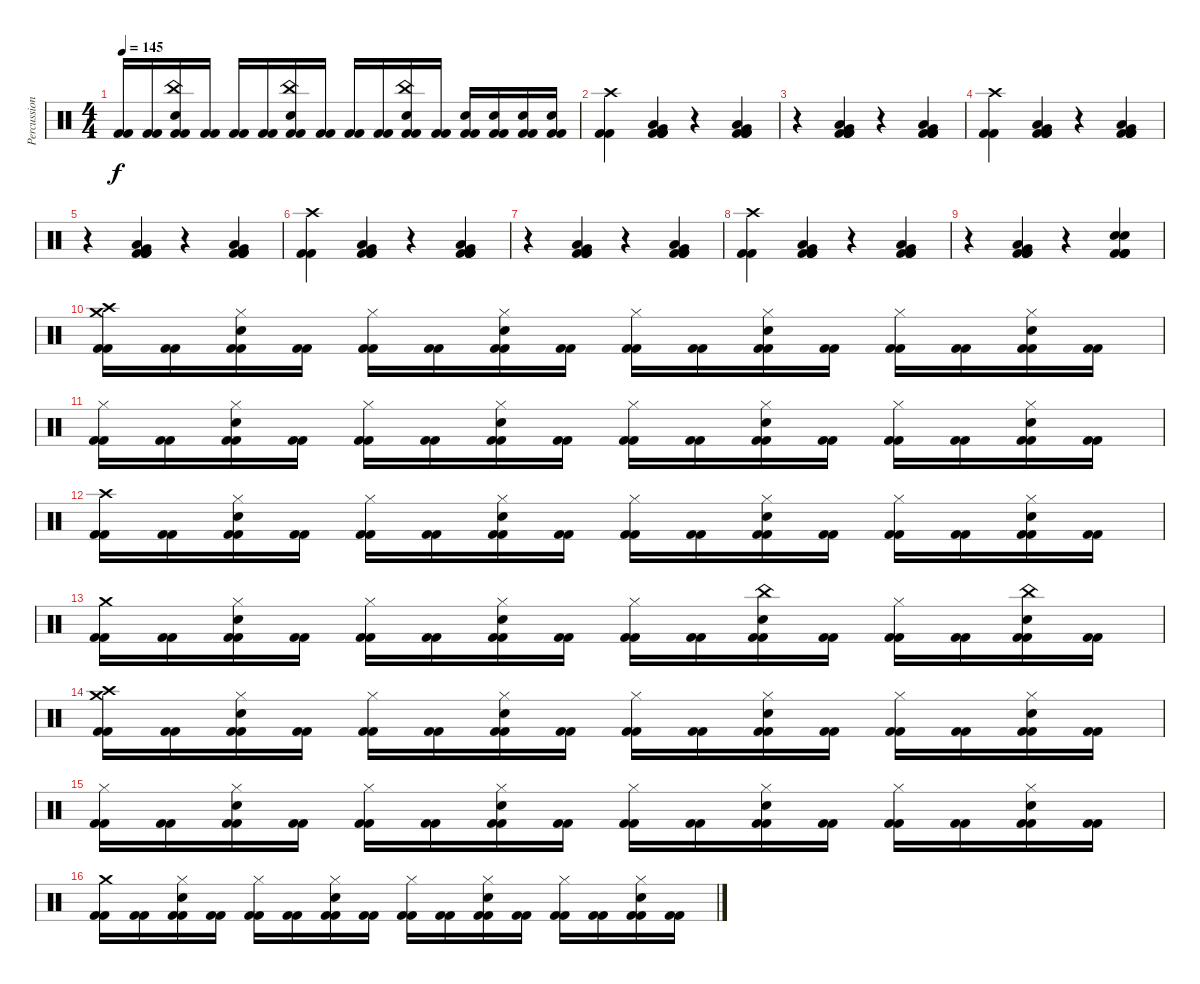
\track ("Percussion" "Percussion") {instrument percussion}
\staff {score}
\articulation defaults
\ts (4 4)
\tempo 145
\clef neutral
\ks c
("Kick (hit) 2" "Kick (hit) 2").16{dy f} ("Kick (hit) 2" "Kick (hit) 2").16 ("China (hit)" "Snare (hit) 2" "Kick (hit) 2" "Kick (hit) 2").16 ("Kick (hit) 2" "Kick (hit) 2").16 ("Kick (hit) 2" "Kick (hit) 2").16 ("Kick (hit) 2" "Kick (hit) 2").16 ("China (hit)" "Snare (hit) 2" "Kick (hit) 2" "Kick (hit) 2").16 ("Kick (hit) 2" "Kick (hit) 2").16 ("Kick (hit) 2" "Kick (hit) 2").16 ("Kick (hit) 2" "Kick (hit) 2").16 ("China (hit)" "Snare (hit) 2" "Kick (hit) 2" "Kick (hit) 2").16 ("Kick (hit) 2" "Kick (hit) 2").16 ("Snare (hit) 2" "Kick (hit) 2" "Kick (hit) 2").16 ("Snare (hit) 2" "Kick (hit) 2" "Kick (hit) 2").16 ("Snare (hit) 2" "Kick (hit) 2" "Kick (hit) 2").16 ("Snare (hit) 2" "Kick (hit) 2" "Kick (hit) 2").16 |
("Crash high (hit)" "Kick (hit) 2" "Kick (hit) 2").4 ("Low Tom (hit)" "Very Low Tom (hit)" "Kick (hit) 2" "Kick (hit) 2" "Kick (hit) 2" "Kick (hit) 2").4 r.4 ("Low Tom (hit)" "Very Low Tom (hit)" "Kick (hit) 2" "Kick (hit) 2" "Kick (hit) 2" "Kick (hit) 2").4 |
r.4 ("Low Tom (hit)" "Very Low Tom (hit)" "Kick (hit) 2" "Kick (hit) 2" "Kick (hit) 2" "Kick (hit) 2").4 r.4 ("Low Tom (hit)" "Very Low Tom (hit)" "Kick (hit) 2" "Kick (hit) 2" "Kick (hit) 2" "Kick (hit) 2").4 |
("Crash high (hit)" "Kick (hit) 2" "Kick (hit) 2").4 ("Low Tom (hit)" "Very Low Tom (hit)" "Kick (hit) 2" "Kick (hit) 2" "Kick (hit) 2" "Kick (hit) 2").4 r.4 ("Low Tom (hit)" "Very Low Tom (hit)" "Kick (hit) 2" "Kick (hit) 2" "Kick (hit) 2" "Kick (hit) 2").4 |
r.4 ("Low Tom (hit)" "Very Low Tom (hit)" "Kick (hit) 2" "Kick (hit) 2" "Kick (hit) 2" "Kick (hit) 2").4 r.4 ("Low Tom (hit)" "Very Low Tom (hit)" "Kick (hit) 2" "Kick (hit) 2" "Kick (hit) 2" "Kick (hit) 2").4 |
("Crash high (hit)" "Kick (hit) 2" "Kick (hit) 2").4 ("Low Tom (hit)" "Very Low Tom (hit)" "Kick (hit) 2" "Kick (hit) 2" "Kick (hit) 2" "Kick (hit) 2").4 r.4 ("Low Tom (hit)" "Very Low Tom (hit)" "Kick (hit) 2" "Kick (hit) 2" "Kick (hit) 2" "Kick (hit) 2").4 |
r.4 ("Low Tom (hit)" "Very Low Tom (hit)" "Kick (hit) 2" "Kick (hit) 2" "Kick (hit) 2" "Kick (hit) 2").4 r.4 ("Low Tom (hit)" "Very Low Tom (hit)" "Kick (hit) 2" "Kick (hit) 2" "Kick (hit) 2" "Kick (hit) 2").4 |
("Crash high (hit)" "Kick (hit) 2" "Kick (hit) 2").4 ("Low Tom (hit)" "Very Low Tom (hit)" "Kick (hit) 2" "Kick (hit) 2" "Kick (hit) 2" "Kick (hit) 2").4 r.4 ("Low Tom (hit)" "Very Low Tom (hit)" "Kick (hit) 2" "Kick (hit) 2" "Kick (hit) 2" "Kick (hit) 2").4 |
r.4 ("Low Tom (hit)" "Very Low Tom (hit)" "Kick (hit) 2" "Kick (hit) 2" "Kick (hit) 2" "Kick (hit) 2").4 r.4 ("Snare (hit) 2" "Snare (hit) 2" "Kick (hit) 2" "Kick (hit) 2" "Kick (hit) 2" "Kick (hit) 2").4 |
("Crash high (hit)" "Crash medium (hit)" "Kick (hit) 2" "Kick (hit) 2").16 ("Kick (hit) 2" "Kick (hit) 2").16 ("Hi-Hat (closed)" "Snare (hit) 2" "Kick (hit) 2" "Kick (hit) 2").16 ("Kick (hit) 2" "Kick (hit) 2").16 ("Hi-Hat (closed)" "Kick (hit) 2" "Kick (hit) 2").16 ("Kick (hit) 2" "Kick (hit) 2").16 ("Hi-Hat (closed)" "Snare (hit) 2" "Kick (hit) 2" "Kick (hit) 2").16 ("Kick (hit) 2" "Kick (hit) 2").16 ("Hi-Hat (closed)" "Kick (hit) 2" "Kick (hit) 2").16 ("Kick (hit) 2" "Kick (hit) 2").16 ("Hi-Hat (closed)" "Snare (hit) 2" "Kick (hit) 2" "Kick (hit) 2").16 ("Kick (hit) 2" "Kick (hit) 2").16 ("Hi-Hat (closed)" "Kick (hit) 2" "Kick (hit) 2").16 ("Kick (hit) 2" "Kick (hit) 2").16 ("Hi-Hat (closed)" "Snare (hit) 2" "Kick (hit) 2" "Kick (hit) 2").16 ("Kick (hit) 2" "Kick (hit) 2").16 |
("Hi-Hat (closed)" "Kick (hit) 2" "Kick (hit) 2").16 ("Kick (hit) 2" "Kick (hit) 2").16 ("Hi-Hat (closed)" "Snare (hit) 2" "Kick (hit) 2" "Kick (hit) 2").16 ("Kick (hit) 2" "Kick (hit) 2").16 ("Hi-Hat (closed)" "Kick (hit) 2" "Kick (hit) 2").16 ("Kick (hit) 2" "Kick (hit) 2").16 ("Hi-Hat (closed)" "Snare (hit) 2" "Kick (hit) 2" "Kick (hit) 2").16 ("Kick (hit) 2" "Kick (hit) 2").16 ("Hi-Hat (closed)" "Kick (hit) 2" "Kick (hit) 2").16 ("Kick (hit) 2" "Kick (hit) 2").16 ("Hi-Hat (closed)" "Snare (hit) 2" "Kick (hit) 2" "Kick (hit) 2").16 ("Kick (hit) 2" "Kick (hit) 2").16 ("Hi-Hat (closed)" "Kick (hit) 2" "Kick (hit) 2").16 ("Kick (hit) 2" "Kick (hit) 2").16 ("Hi-Hat (closed)" "Snare (hit) 2" "Kick (hit) 2" "Kick (hit) 2").16 ("Kick (hit) 2" "Kick (hit) 2").16 |
("Crash high (hit)" "Kick (hit) 2" "Kick (hit) 2").16 ("Kick (hit) 2" "Kick (hit) 2").16 ("Hi-Hat (closed)" "Snare (hit) 2" "Kick (hit) 2" "Kick (hit) 2").16 ("Kick (hit) 2" "Kick (hit) 2").16 ("Hi-Hat (closed)" "Kick (hit) 2" "Kick (hit) 2").16 ("Kick (hit) 2" "Kick (hit) 2").16 ("Hi-Hat (closed)" "Snare (hit) 2" "Kick (hit) 2" "Kick (hit) 2").16 ("Kick (hit) 2" "Kick (hit) 2").16 ("Hi-Hat (closed)" "Kick (hit) 2" "Kick (hit) 2").16 ("Kick (hit) 2" "Kick (hit) 2").16 ("Hi-Hat (closed)" "Snare (hit) 2" "Kick (hit) 2" "Kick (hit) 2").16 ("Kick (hit) 2" "Kick (hit) 2").16 ("Hi-Hat (closed)" "Kick (hit) 2" "Kick (hit) 2").16 ("Kick (hit) 2" "Kick (hit) 2").16 ("Hi-Hat (closed)" "Snare (hit) 2" "Kick (hit) 2" "Kick (hit) 2").16 ("Kick (hit) 2" "Kick (hit) 2").16 |
("Crash medium (hit)" "Kick (hit) 2" "Kick (hit) 2").16 ("Kick (hit) 2" "Kick (hit) 2").16 ("Hi-Hat (closed)" "Snare (hit) 2" "Kick (hit) 2" "Kick (hit) 2").16 ("Kick (hit) 2" "Kick (hit) 2").16 ("Hi-Hat (closed)" "Kick (hit) 2" "Kick (hit) 2").16 ("Kick (hit) 2" "Kick (hit) 2").16 ("Hi-Hat (closed)" "Snare (hit) 2" "Kick (hit) 2" "Kick (hit) 2").16 ("Kick (hit) 2" "Kick (hit) 2").16 ("Hi-Hat (closed)" "Kick (hit) 2" "Kick (hit) 2").16 ("Kick (hit) 2" "Kick (hit) 2").16 ("China (hit)" "Snare (hit) 2" "Kick (hit) 2" "Kick (hit) 2").16 ("Kick (hit) 2" "Kick (hit) 2").16 ("Hi-Hat (closed)" "Kick (hit) 2" "Kick (hit) 2").16 ("Kick (hit) 2" "Kick (hit) 2").16 ("China (hit)" "Snare (hit) 2" "Kick (hit) 2" "Kick (hit) 2").16 ("Kick (hit) 2" "Kick (hit) 2").16 |
("Crash high (hit)" "Crash medium (hit)" "Kick (hit) 2" "Kick (hit) 2").16 ("Kick (hit) 2" "Kick (hit) 2").16 ("Hi-Hat (closed)" "Snare (hit) 2" "Kick (hit) 2" "Kick (hit) 2").16 ("Kick (hit) 2" "Kick (hit) 2").16 ("Hi-Hat (closed)" "Kick (hit) 2" "Kick (hit) 2").16 ("Kick (hit) 2" "Kick (hit) 2").16 ("Hi-Hat (closed)" "Snare (hit) 2" "Kick (hit) 2" "Kick (hit) 2").16 ("Kick (hit) 2" "Kick (hit) 2").16 ("Hi-Hat (closed)" "Kick (hit) 2" "Kick (hit) 2").16 ("Kick (hit) 2" "Kick (hit) 2").16 ("Hi-Hat (closed)" "Snare (hit) 2" "Kick (hit) 2" "Kick (hit) 2").16 ("Kick (hit) 2" "Kick (hit) 2").16 ("Hi-Hat (closed)" "Kick (hit) 2" "Kick (hit) 2").16 ("Kick (hit) 2" "Kick (hit) 2").16 ("Hi-Hat (closed)" "Snare (hit) 2" "Kick (hit) 2" "Kick (hit) 2").16 ("Kick (hit) 2" "Kick (hit) 2").16 |
("Hi-Hat (closed)" "Kick (hit) 2" "Kick (hit) 2").16 ("Kick (hit) 2" "Kick (hit) 2").16 ("Hi-Hat (closed)" "Snare (hit) 2" "Kick (hit) 2" "Kick (hit) 2").16 ("Kick (hit) 2" "Kick (hit) 2").16 ("Hi-Hat (closed)" "Kick (hit) 2" "Kick (hit) 2").16 ("Kick (hit) 2" "Kick (hit) 2").16 ("Hi-Hat (closed)" "Snare (hit) 2" "Kick (hit) 2" "Kick (hit) 2").16 ("Kick (hit) 2" "Kick (hit) 2").16 ("Hi-Hat (closed)" "Kick (hit) 2" "Kick (hit) 2").16 ("Kick (hit) 2" "Kick (hit) 2").16 ("Hi-Hat (closed)" "Snare (hit) 2" "Kick (hit) 2" "Kick (hit) 2").16 ("Kick (hit) 2" "Kick (hit) 2").16 ("Hi-Hat (closed)" "Kick (hit) 2" "Kick (hit) 2").16 ("Kick (hit) 2" "Kick (hit) 2").16 ("Hi-Hat (closed)" "Snare (hit) 2" "Kick (hit) 2" "Kick (hit) 2").16 ("Kick (hit) 2" "Kick (hit) 2").16 |
("Crash medium (hit)" "Kick (hit) 2" "Kick (hit) 2").16 ("Kick (hit) 2" "Kick (hit) 2").16 ("Hi-Hat (closed)" "Snare (hit) 2" "Kick (hit) 2" "Kick (hit) 2").16 ("Kick (hit) 2" "Kick (hit) 2").16 ("Hi-Hat (closed)" "Kick (hit) 2" "Kick (hit) 2").16 ("Kick (hit) 2" "Kick (hit) 2").16 ("Hi-Hat (closed)" "Snare (hit) 2" "Kick (hit) 2" "Kick (hit) 2").16 ("Kick (hit) 2" "Kick (hit) 2").16 ("Hi-Hat (closed)" "Kick (hit) 2" "Kick (hit) 2").16 ("Kick (hit) 2" "Kick (hit) 2").16 ("Hi-Hat (closed)" "Snare (hit) 2" "Kick (hit) 2" "Kick (hit) 2").16 ("Kick (hit) 2" "Kick (hit) 2").16 ("Hi-Hat (closed)" "Kick (hit) 2" "Kick (hit) 2").16 ("Kick (hit) 2" "Kick (hit) 2").16 ("Hi-Hat (closed)" "Snare (hit) 2" "Kick (hit) 2" "Kick (hit) 2").16 ("Kick (hit) 2" "Kick (hit) 2").16
